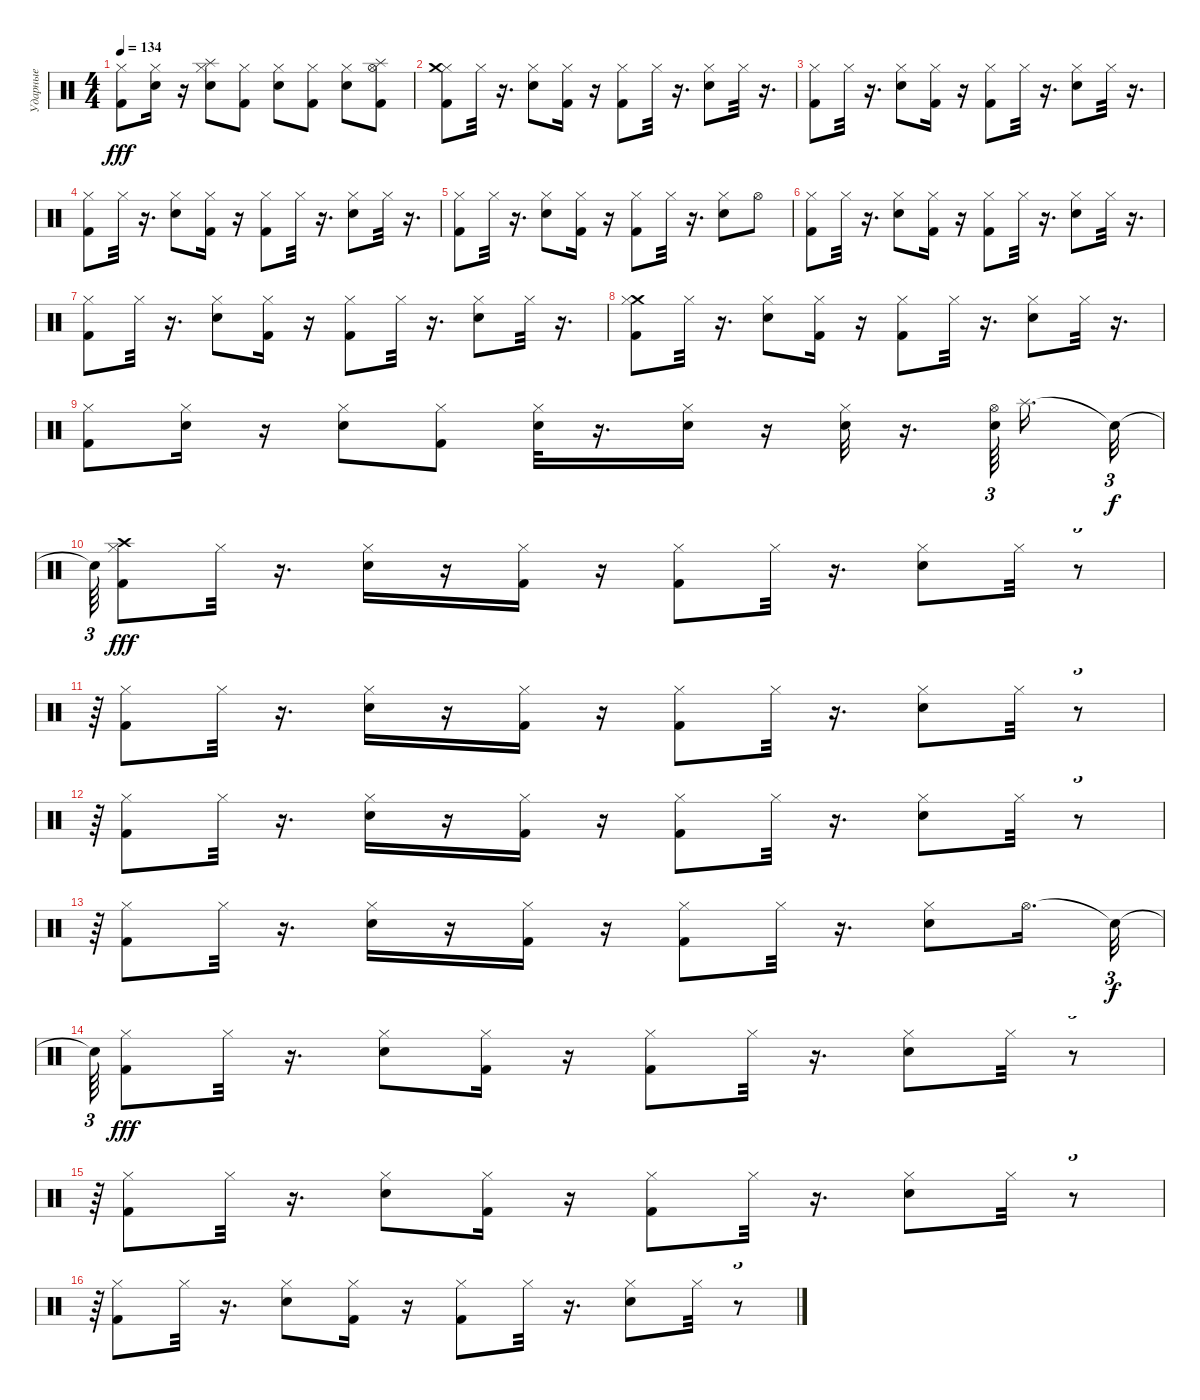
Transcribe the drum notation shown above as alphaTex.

\track ("Ударные" "Ударные") {instrument percussion}
\staff {score}
\articulation defaults
\ts (4 4)
\tempo 134
\clef neutral
\ks c
("Kick (hit) 2" "Hi-Hat (closed)").8{dy fff} ("Electric Snare (hit)" "Hi-Hat (closed)").16 r.16 ("Electric Snare (hit)" "Hi-Hat (closed)" "Splash (hit)").8 ("Kick (hit) 2" "Hi-Hat (closed)").8 ("Electric Snare (hit)" "Hi-Hat (closed)").8 ("Kick (hit) 2" "Hi-Hat (closed)").8 ("Electric Snare (hit)" "Hi-Hat (closed)").8 ("Kick (hit) 2" "Hi-Hat (open)" "Splash (hit)").8 |
("Kick (hit) 2" "Hi-Hat (closed)" "Crash medium (hit)").8 "Hi-Hat (closed)".32 r.16{d} ("Electric Snare (hit)" "Hi-Hat (closed)").8 ("Kick (hit) 2" "Hi-Hat (closed)").16 r.16 ("Kick (hit) 2" "Hi-Hat (closed)").8 "Hi-Hat (closed)".32 r.16{d} ("Electric Snare (hit)" "Hi-Hat (closed)").8 "Hi-Hat (closed)".32 r.16{d} |
("Kick (hit) 2" "Hi-Hat (closed)").8 "Hi-Hat (closed)".32 r.16{d} ("Electric Snare (hit)" "Hi-Hat (closed)").8 ("Kick (hit) 2" "Hi-Hat (closed)").16 r.16 ("Kick (hit) 2" "Hi-Hat (closed)").8 "Hi-Hat (closed)".32 r.16{d} ("Electric Snare (hit)" "Hi-Hat (closed)").8 "Hi-Hat (closed)".32 r.16{d} |
("Kick (hit) 2" "Hi-Hat (closed)").8 "Hi-Hat (closed)".32 r.16{d} ("Electric Snare (hit)" "Hi-Hat (closed)").8 ("Kick (hit) 2" "Hi-Hat (closed)").16 r.16 ("Kick (hit) 2" "Hi-Hat (closed)").8 "Hi-Hat (closed)".32 r.16{d} ("Electric Snare (hit)" "Hi-Hat (closed)").8 "Hi-Hat (closed)".32 r.16{d} |
("Kick (hit) 2" "Hi-Hat (closed)").8 "Hi-Hat (closed)".32 r.16{d} ("Electric Snare (hit)" "Hi-Hat (closed)").8 ("Kick (hit) 2" "Hi-Hat (closed)").16 r.16 ("Kick (hit) 2" "Hi-Hat (closed)").8 "Hi-Hat (closed)".32 r.16{d} ("Electric Snare (hit)" "Hi-Hat (closed)").8 "Hi-Hat (open)".8 |
("Kick (hit) 2" "Hi-Hat (closed)").8 "Hi-Hat (closed)".32 r.16{d} ("Electric Snare (hit)" "Hi-Hat (closed)").8 ("Kick (hit) 2" "Hi-Hat (closed)").16 r.16 ("Kick (hit) 2" "Hi-Hat (closed)").8 "Hi-Hat (closed)".32 r.16{d} ("Electric Snare (hit)" "Hi-Hat (closed)").8 "Hi-Hat (closed)".32 r.16{d} |
("Kick (hit) 2" "Hi-Hat (closed)").8 "Hi-Hat (closed)".32 r.16{d} ("Electric Snare (hit)" "Hi-Hat (closed)").8 ("Kick (hit) 2" "Hi-Hat (closed)").16 r.16 ("Kick (hit) 2" "Hi-Hat (closed)").8 "Hi-Hat (closed)".32 r.16{d} ("Electric Snare (hit)" "Hi-Hat (closed)").8 "Hi-Hat (closed)".32 r.16{d} |
("Crash medium (hit)" "Kick (hit) 2" "Hi-Hat (closed)").8 "Hi-Hat (closed)".32 r.16{d} ("Electric Snare (hit)" "Hi-Hat (closed)").8 ("Kick (hit) 2" "Hi-Hat (closed)").16 r.16 ("Kick (hit) 2" "Hi-Hat (closed)").8 "Hi-Hat (closed)".32 r.16{d} ("Electric Snare (hit)" "Hi-Hat (closed)").8 "Hi-Hat (closed)".32 r.16{d} |
("Kick (hit) 2" "Hi-Hat (closed)").8 ("Electric Snare (hit)" "Hi-Hat (closed)").16 r.16 ("Electric Snare (hit)" "Hi-Hat (closed)").8 ("Kick (hit) 2" "Hi-Hat (closed)").8 ("Electric Snare (hit)" "Hi-Hat (closed)").32 r.16{d} ("Electric Snare (hit)" "Hi-Hat (closed)").16 r.16 ("Electric Snare (hit)" "Hi-Hat (closed)").32 r.16{d} ("Electric Snare (hit)" "Hi-Hat (open)").64{tu (3 2) beam splitsecondary} "Splash (hit)".16{d} "Snare (hit)"{t}.32{tu (3 2) dy f} |
"Snare (hit)"{t}.64{tu (3 2)} ("Kick (hit) 2" "Crash high (hit)" "Hi-Hat (closed)").8{dy fff} "Hi-Hat (closed)".32 r.16{d} ("Electric Snare (hit)" "Hi-Hat (closed)").16 r.16 ("Kick (hit) 2" "Hi-Hat (closed)").16 r.16 ("Kick (hit) 2" "Hi-Hat (closed)").8 "Hi-Hat (closed)".32 r.16{d} ("Electric Snare (hit)" "Hi-Hat (closed)").8 "Hi-Hat (closed)".32 r.8{tu (3 2)} |
r.64{tu (3 2)} ("Kick (hit) 2" "Hi-Hat (closed)").8 "Hi-Hat (closed)".32 r.16{d} ("Electric Snare (hit)" "Hi-Hat (closed)").16 r.16 ("Kick (hit) 2" "Hi-Hat (closed)").16 r.16 ("Kick (hit) 2" "Hi-Hat (closed)").8 "Hi-Hat (closed)".32 r.16{d} ("Electric Snare (hit)" "Hi-Hat (closed)").8 "Hi-Hat (closed)".32 r.8{tu (3 2)} |
r.64{tu (3 2)} ("Kick (hit) 2" "Hi-Hat (closed)").8 "Hi-Hat (closed)".32 r.16{d} ("Electric Snare (hit)" "Hi-Hat (closed)").16 r.16 ("Kick (hit) 2" "Hi-Hat (closed)").16 r.16 ("Kick (hit) 2" "Hi-Hat (closed)").8 "Hi-Hat (closed)".32 r.16{d} ("Electric Snare (hit)" "Hi-Hat (closed)").8 "Hi-Hat (closed)".32 r.8{tu (3 2)} |
r.64{tu (3 2)} ("Kick (hit) 2" "Hi-Hat (closed)").8 "Hi-Hat (closed)".32 r.16{d} ("Electric Snare (hit)" "Hi-Hat (closed)").16 r.16 ("Kick (hit) 2" "Hi-Hat (closed)").16 r.16 ("Kick (hit) 2" "Hi-Hat (closed)").8 "Hi-Hat (closed)".32 r.16{d} ("Electric Snare (hit)" "Hi-Hat (closed)").8 "Hi-Hat (open)".16{d} "Snare (hit)"{t}.32{tu (3 2) dy f} |
"Snare (hit)"{t}.64{tu (3 2)} ("Kick (hit) 2" "Hi-Hat (closed)").8{dy fff} "Hi-Hat (closed)".32 r.16{d} ("Electric Snare (hit)" "Hi-Hat (closed)").8 ("Kick (hit) 2" "Hi-Hat (closed)").16 r.16 ("Kick (hit) 2" "Hi-Hat (closed)").8 "Hi-Hat (closed)".32 r.16{d} ("Electric Snare (hit)" "Hi-Hat (closed)").8 "Hi-Hat (closed)".32 r.8{tu (3 2)} |
r.64{tu (3 2)} ("Kick (hit) 2" "Hi-Hat (closed)").8 "Hi-Hat (closed)".32 r.16{d} ("Electric Snare (hit)" "Hi-Hat (closed)").8 ("Kick (hit) 2" "Hi-Hat (closed)").16 r.16 ("Kick (hit) 2" "Hi-Hat (closed)").8 "Hi-Hat (closed)".32 r.16{d} ("Electric Snare (hit)" "Hi-Hat (closed)").8 "Hi-Hat (closed)".32 r.8{tu (3 2)} |
r.64{tu (3 2)} ("Kick (hit) 2" "Hi-Hat (closed)").8 "Hi-Hat (closed)".32 r.16{d} ("Electric Snare (hit)" "Hi-Hat (closed)").8 ("Kick (hit) 2" "Hi-Hat (closed)").16 r.16 ("Kick (hit) 2" "Hi-Hat (closed)").8 "Hi-Hat (closed)".32 r.16{d} ("Electric Snare (hit)" "Hi-Hat (closed)").8 "Hi-Hat (closed)".32 r.8{tu (3 2)}
